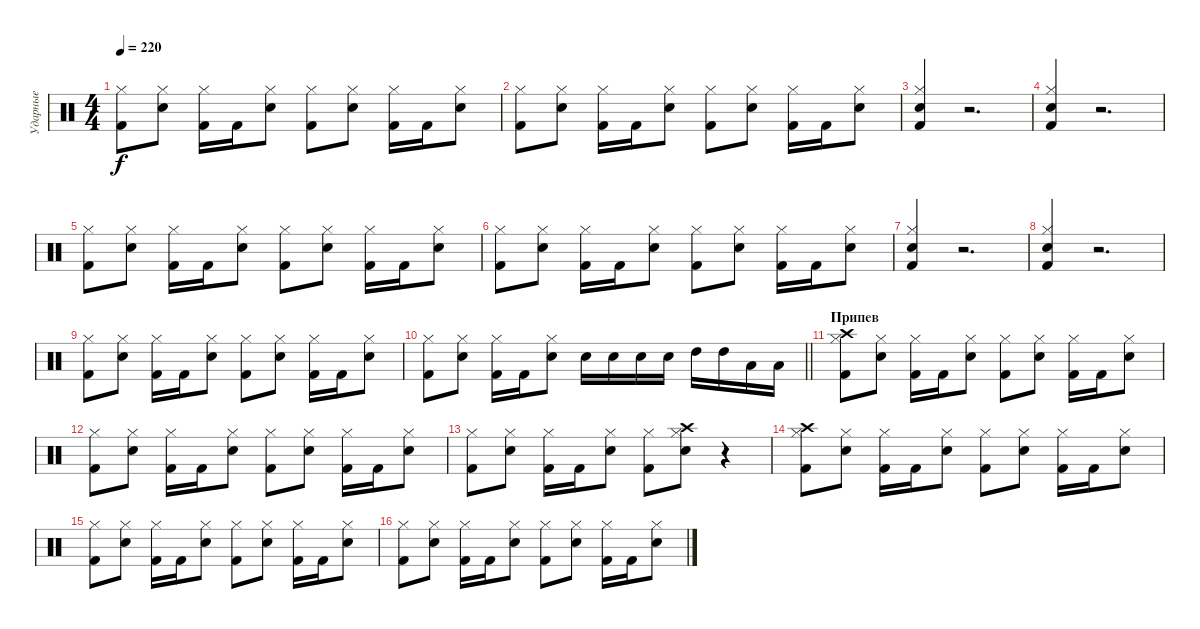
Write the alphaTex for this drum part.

\track ("Ударные" "Ударные") {instrument percussion}
\staff {score}
\articulation defaults
\ts (4 4)
\tempo 220
\clef neutral
\ks c
("Kick (hit) 2" "Hi-Hat (closed)").8{dy f} ("Snare (hit) 2" "Hi-Hat (closed)").8 ("Kick (hit) 2" "Hi-Hat (closed)").16 "Kick (hit) 2".16 ("Snare (hit) 2" "Hi-Hat (closed)").8 ("Kick (hit) 2" "Hi-Hat (closed)").8 ("Snare (hit) 2" "Hi-Hat (closed)").8 ("Kick (hit) 2" "Hi-Hat (closed)").16 "Kick (hit) 2".16 ("Snare (hit) 2" "Hi-Hat (closed)").8 |
("Kick (hit) 2" "Hi-Hat (closed)").8 ("Snare (hit) 2" "Hi-Hat (closed)").8 ("Kick (hit) 2" "Hi-Hat (closed)").16 "Kick (hit) 2".16 ("Snare (hit) 2" "Hi-Hat (closed)").8 ("Kick (hit) 2" "Hi-Hat (closed)").8 ("Snare (hit) 2" "Hi-Hat (closed)").8 ("Kick (hit) 2" "Hi-Hat (closed)").16 "Kick (hit) 2".16 ("Snare (hit) 2" "Hi-Hat (closed)").8 |
("Kick (hit) 2" "Snare (hit) 2" "Hi-Hat (closed)").4 r.2{d} |
("Kick (hit) 2" "Snare (hit) 2" "Hi-Hat (closed)").4 r.2{d} |
("Kick (hit) 2" "Hi-Hat (closed)").8 ("Snare (hit) 2" "Hi-Hat (closed)").8 ("Kick (hit) 2" "Hi-Hat (closed)").16 "Kick (hit) 2".16 ("Snare (hit) 2" "Hi-Hat (closed)").8 ("Kick (hit) 2" "Hi-Hat (closed)").8 ("Snare (hit) 2" "Hi-Hat (closed)").8 ("Kick (hit) 2" "Hi-Hat (closed)").16 "Kick (hit) 2".16 ("Snare (hit) 2" "Hi-Hat (closed)").8 |
("Kick (hit) 2" "Hi-Hat (closed)").8 ("Snare (hit) 2" "Hi-Hat (closed)").8 ("Kick (hit) 2" "Hi-Hat (closed)").16 "Kick (hit) 2".16 ("Snare (hit) 2" "Hi-Hat (closed)").8 ("Kick (hit) 2" "Hi-Hat (closed)").8 ("Snare (hit) 2" "Hi-Hat (closed)").8 ("Kick (hit) 2" "Hi-Hat (closed)").16 "Kick (hit) 2".16 ("Snare (hit) 2" "Hi-Hat (closed)").8 |
("Kick (hit) 2" "Snare (hit) 2" "Hi-Hat (closed)").4 r.2{d} |
("Kick (hit) 2" "Snare (hit) 2" "Hi-Hat (closed)").4 r.2{d} |
("Kick (hit) 2" "Hi-Hat (closed)").8 ("Snare (hit) 2" "Hi-Hat (closed)").8 ("Kick (hit) 2" "Hi-Hat (closed)").16 "Kick (hit) 2".16 ("Snare (hit) 2" "Hi-Hat (closed)").8 ("Kick (hit) 2" "Hi-Hat (closed)").8 ("Snare (hit) 2" "Hi-Hat (closed)").8 ("Kick (hit) 2" "Hi-Hat (closed)").16 "Kick (hit) 2".16 ("Snare (hit) 2" "Hi-Hat (closed)").8 |
\barLineRight lightlight
("Kick (hit) 2" "Hi-Hat (closed)").8 ("Snare (hit) 2" "Hi-Hat (closed)").8 ("Kick (hit) 2" "Hi-Hat (closed)").16 "Kick (hit) 2".16 ("Snare (hit) 2" "Hi-Hat (closed)").8 "Snare (hit) 2".16 "Snare (hit) 2".16 "Snare (hit) 2".16 "Snare (hit) 2".16 "High Tom (hit)".16 "High Tom (hit)".16 "Low Tom (hit)".16 "Low Tom (hit)".16 |
\section ("" "Припев")
("Kick (hit) 2" "Hi-Hat (closed)" "Crash high (hit)").8 ("Snare (hit) 2" "Hi-Hat (closed)").8 ("Kick (hit) 2" "Hi-Hat (closed)").16 "Kick (hit) 2".16 ("Snare (hit) 2" "Hi-Hat (closed)").8 ("Kick (hit) 2" "Hi-Hat (closed)").8 ("Snare (hit) 2" "Hi-Hat (closed)").8 ("Kick (hit) 2" "Hi-Hat (closed)").16 "Kick (hit) 2".16 ("Snare (hit) 2" "Hi-Hat (closed)").8 |
("Kick (hit) 2" "Hi-Hat (closed)").8 ("Snare (hit) 2" "Hi-Hat (closed)").8 ("Kick (hit) 2" "Hi-Hat (closed)").16 "Kick (hit) 2".16 ("Snare (hit) 2" "Hi-Hat (closed)").8 ("Kick (hit) 2" "Hi-Hat (closed)").8 ("Snare (hit) 2" "Hi-Hat (closed)").8 ("Kick (hit) 2" "Hi-Hat (closed)").16 "Kick (hit) 2".16 ("Snare (hit) 2" "Hi-Hat (closed)").8 |
("Kick (hit) 2" "Hi-Hat (closed)").8 ("Snare (hit) 2" "Hi-Hat (closed)").8 ("Kick (hit) 2" "Hi-Hat (closed)").16 "Kick (hit) 2".16 ("Snare (hit) 2" "Hi-Hat (closed)").8 ("Kick (hit) 2" "Hi-Hat (closed)").8 ("Snare (hit) 2" "Hi-Hat (closed)" "Crash high (hit)").8 r.4 |
("Kick (hit) 2" "Hi-Hat (closed)" "Crash high (hit)").8 ("Snare (hit) 2" "Hi-Hat (closed)").8 ("Kick (hit) 2" "Hi-Hat (closed)").16 "Kick (hit) 2".16 ("Snare (hit) 2" "Hi-Hat (closed)").8 ("Kick (hit) 2" "Hi-Hat (closed)").8 ("Snare (hit) 2" "Hi-Hat (closed)").8 ("Kick (hit) 2" "Hi-Hat (closed)").16 "Kick (hit) 2".16 ("Snare (hit) 2" "Hi-Hat (closed)").8 |
("Kick (hit) 2" "Hi-Hat (closed)").8 ("Snare (hit) 2" "Hi-Hat (closed)").8 ("Kick (hit) 2" "Hi-Hat (closed)").16 "Kick (hit) 2".16 ("Snare (hit) 2" "Hi-Hat (closed)").8 ("Kick (hit) 2" "Hi-Hat (closed)").8 ("Snare (hit) 2" "Hi-Hat (closed)").8 ("Kick (hit) 2" "Hi-Hat (closed)").16 "Kick (hit) 2".16 ("Snare (hit) 2" "Hi-Hat (closed)").8 |
("Kick (hit) 2" "Hi-Hat (closed)").8 ("Snare (hit) 2" "Hi-Hat (closed)").8 ("Kick (hit) 2" "Hi-Hat (closed)").16 "Kick (hit) 2".16 ("Snare (hit) 2" "Hi-Hat (closed)").8 ("Kick (hit) 2" "Hi-Hat (closed)").8 ("Snare (hit) 2" "Hi-Hat (closed)").8 ("Kick (hit) 2" "Hi-Hat (closed)").16 "Kick (hit) 2".16 ("Snare (hit) 2" "Hi-Hat (closed)").8
